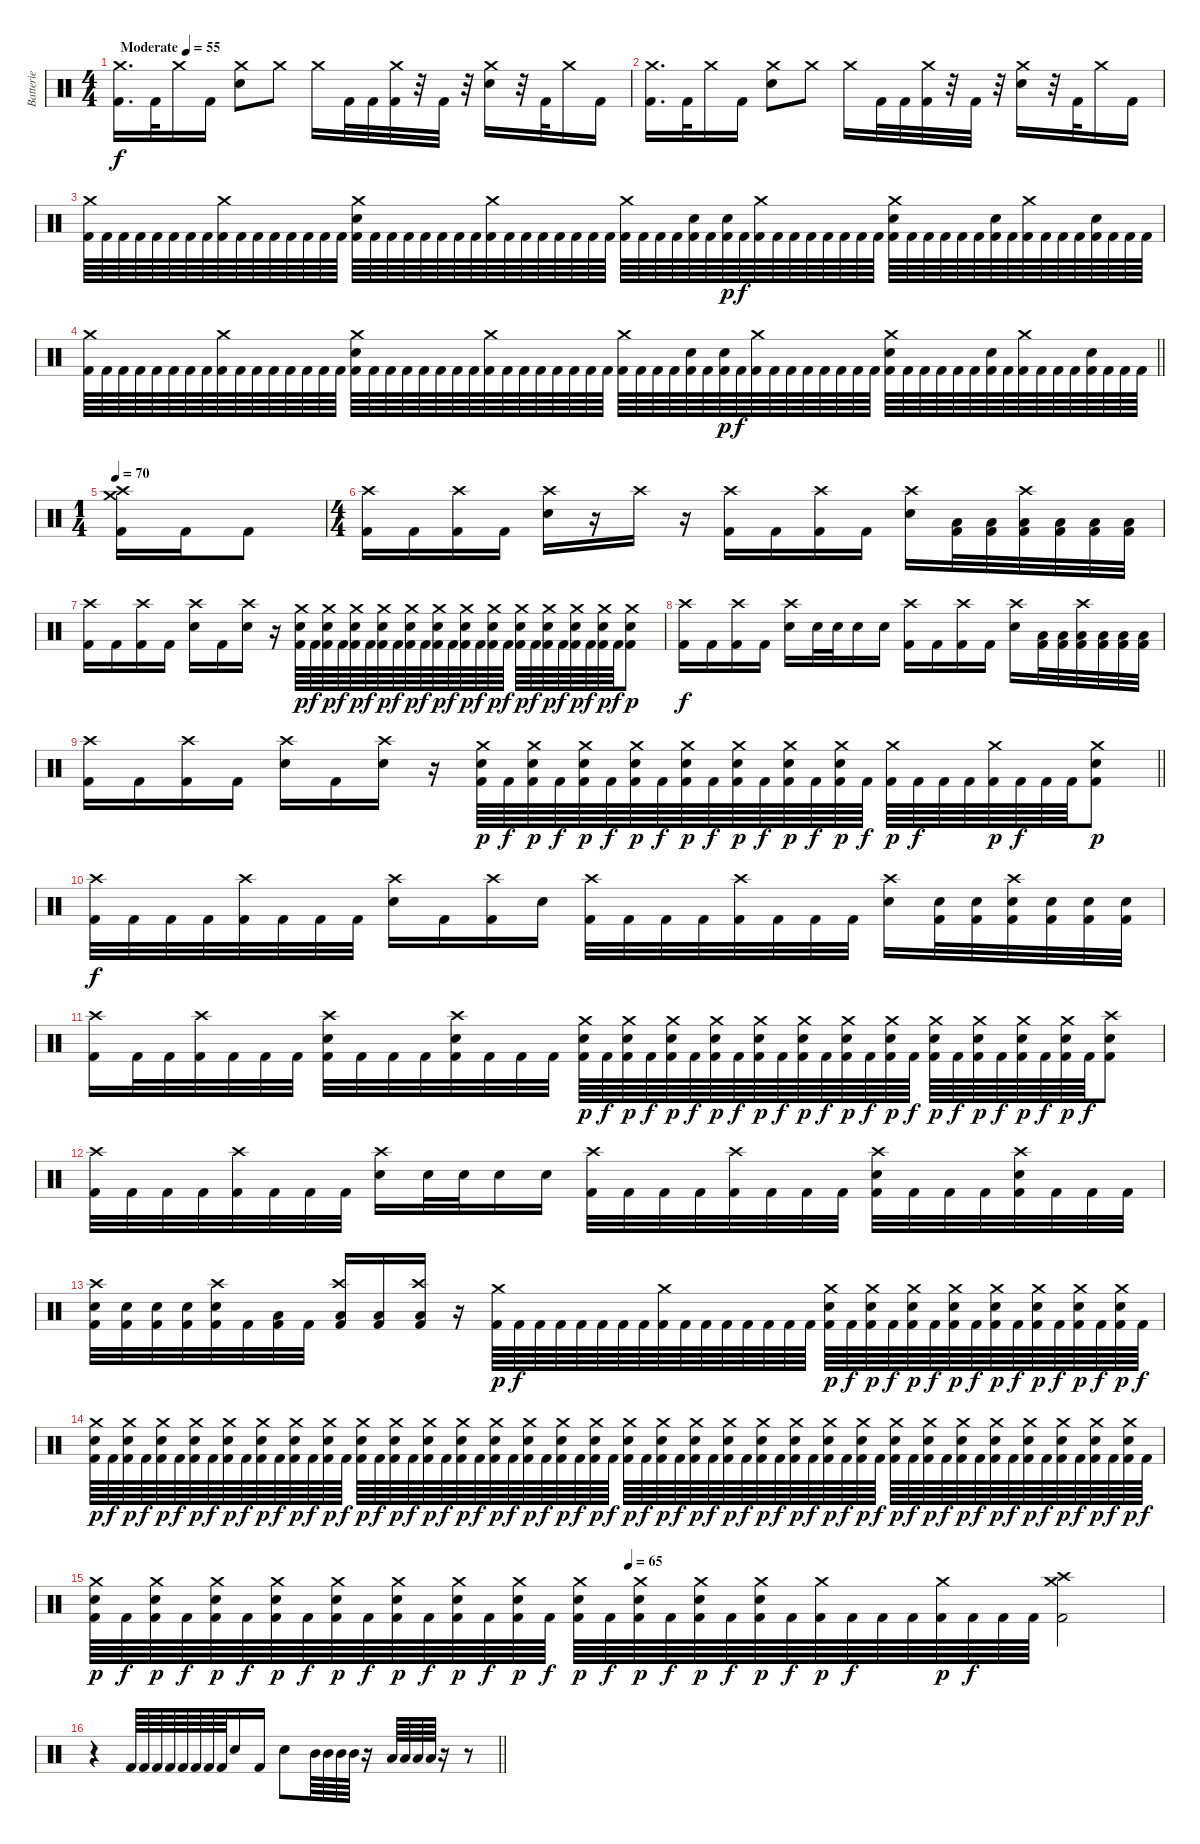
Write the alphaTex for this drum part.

\track ("Batterie" "Batterie") {instrument percussion}
\staff {score}
\articulation defaults
\ts (4 4)
\tempo (55 "Moderate")
\clef neutral
\ks c
("Crash medium (hit)" "Kick (hit) 2").16{d dy f} "Kick (hit) 2".32 "Crash medium (hit)".16 "Kick (hit) 2".16 ("Crash medium (hit)" "Electric Snare (hit)").8 "Crash medium (hit)".8 "Crash medium (hit)".16 "Kick (hit) 2".32 "Kick (hit) 2".32 ("Crash medium (hit)" "Kick (hit) 2").32 r.32 "Kick (hit) 2".32 r.32 ("Crash medium (hit)" "Electric Snare (hit)").16 r.32 "Kick (hit) 2".32 "Crash medium (hit)".16 "Kick (hit) 2".16 |
("Crash medium (hit)" "Kick (hit) 2").16{d} "Kick (hit) 2".32 "Crash medium (hit)".16 "Kick (hit) 2".16 ("Crash medium (hit)" "Electric Snare (hit)").8 "Crash medium (hit)".8 "Crash medium (hit)".16 "Kick (hit) 2".32 "Kick (hit) 2".32 ("Crash medium (hit)" "Kick (hit) 2").32 r.32 "Kick (hit) 2".32 r.32 ("Crash medium (hit)" "Electric Snare (hit)").16 r.32 "Kick (hit) 2".32 "Crash medium (hit)".16 "Kick (hit) 2".16 |
("Crash medium (hit)" "Kick (hit) 2").64 "Kick (hit) 2".64 "Kick (hit) 2".64 "Kick (hit) 2".64 "Kick (hit) 2".64 "Kick (hit) 2".64 "Kick (hit) 2".64 "Kick (hit) 2".64 ("Crash medium (hit)" "Kick (hit) 2").64 "Kick (hit) 2".64 "Kick (hit) 2".64 "Kick (hit) 2".64 "Kick (hit) 2".64 "Kick (hit) 2".64 "Kick (hit) 2".64 "Kick (hit) 2".64 ("Crash medium (hit)" "Electric Snare (hit)" "Kick (hit) 2").64 "Kick (hit) 2".64 "Kick (hit) 2".64 "Kick (hit) 2".64 "Kick (hit) 2".64 "Kick (hit) 2".64 "Kick (hit) 2".64 "Kick (hit) 2".64 ("Crash medium (hit)" "Kick (hit) 2").64 "Kick (hit) 2".64 "Kick (hit) 2".64 "Kick (hit) 2".64 "Kick (hit) 2".64 "Kick (hit) 2".64 "Kick (hit) 2".64 "Kick (hit) 2".64 ("Crash medium (hit)" "Kick (hit) 2").64 "Kick (hit) 2".64 "Kick (hit) 2".64 "Kick (hit) 2".64 ("Electric Snare (hit)" "Kick (hit) 2").64 "Kick (hit) 2".64 ("Electric Snare (hit)" "Kick (hit) 2").64{dy p} "Kick (hit) 2".64{dy f} ("Crash medium (hit)" "Kick (hit) 2").64 "Kick (hit) 2".64 "Kick (hit) 2".64 "Kick (hit) 2".64 "Kick (hit) 2".64 "Kick (hit) 2".64 "Kick (hit) 2".64 "Kick (hit) 2".64 ("Crash medium (hit)" "Electric Snare (hit)" "Kick (hit) 2").64 "Kick (hit) 2".64 "Kick (hit) 2".64 "Kick (hit) 2".64 "Kick (hit) 2".64 "Kick (hit) 2".64 ("Electric Snare (hit)" "Kick (hit) 2").64 "Kick (hit) 2".64 ("Crash medium (hit)" "Kick (hit) 2").64 "Kick (hit) 2".64 "Kick (hit) 2".64 "Kick (hit) 2".64 ("Electric Snare (hit)" "Kick (hit) 2").64 "Kick (hit) 2".64 "Kick (hit) 2".64 "Kick (hit) 2".64 |
\barLineRight lightlight
("Crash medium (hit)" "Kick (hit) 2").64 "Kick (hit) 2".64 "Kick (hit) 2".64 "Kick (hit) 2".64 "Kick (hit) 2".64 "Kick (hit) 2".64 "Kick (hit) 2".64 "Kick (hit) 2".64 ("Crash medium (hit)" "Kick (hit) 2").64 "Kick (hit) 2".64 "Kick (hit) 2".64 "Kick (hit) 2".64 "Kick (hit) 2".64 "Kick (hit) 2".64 "Kick (hit) 2".64 "Kick (hit) 2".64 ("Crash medium (hit)" "Electric Snare (hit)" "Kick (hit) 2").64 "Kick (hit) 2".64 "Kick (hit) 2".64 "Kick (hit) 2".64 "Kick (hit) 2".64 "Kick (hit) 2".64 "Kick (hit) 2".64 "Kick (hit) 2".64 ("Crash medium (hit)" "Kick (hit) 2").64 "Kick (hit) 2".64 "Kick (hit) 2".64 "Kick (hit) 2".64 "Kick (hit) 2".64 "Kick (hit) 2".64 "Kick (hit) 2".64 "Kick (hit) 2".64 ("Crash medium (hit)" "Kick (hit) 2").64 "Kick (hit) 2".64 "Kick (hit) 2".64 "Kick (hit) 2".64 ("Electric Snare (hit)" "Kick (hit) 2").64 "Kick (hit) 2".64 ("Electric Snare (hit)" "Kick (hit) 2").64{dy p} "Kick (hit) 2".64{dy f} ("Crash medium (hit)" "Kick (hit) 2").64 "Kick (hit) 2".64 "Kick (hit) 2".64 "Kick (hit) 2".64 "Kick (hit) 2".64 "Kick (hit) 2".64 "Kick (hit) 2".64 "Kick (hit) 2".64 ("Crash medium (hit)" "Electric Snare (hit)" "Kick (hit) 2").64 "Kick (hit) 2".64 "Kick (hit) 2".64 "Kick (hit) 2".64 "Kick (hit) 2".64 "Kick (hit) 2".64 ("Electric Snare (hit)" "Kick (hit) 2").64 "Kick (hit) 2".64 ("Crash medium (hit)" "Kick (hit) 2").64 "Kick (hit) 2".64 "Kick (hit) 2".64 "Kick (hit) 2".64 ("Electric Snare (hit)" "Kick (hit) 2").64 "Kick (hit) 2".64 "Kick (hit) 2".64 "Kick (hit) 2".64 |
\ts (1 4)
\section ("" "")
\tempo 70
("Crash medium (hit)" "Crash high (hit)" "Kick (hit) 2").16 "Kick (hit) 2".16 "Kick (hit) 2".8 |
\ts (4 4)
("Crash high (hit)" "Kick (hit) 2").16 "Kick (hit) 2".16 ("Crash high (hit)" "Kick (hit) 2").16 "Kick (hit) 2".16 ("Crash high (hit)" "Electric Snare (hit)").16 r.16 "Crash high (hit)".16 r.16 ("Crash high (hit)" "Kick (hit) 2").16 "Kick (hit) 2".16 ("Crash high (hit)" "Kick (hit) 2").16 "Kick (hit) 2".16 ("Crash high (hit)" "Electric Snare (hit)").16 ("Low Tom (hit)" "Kick (hit) 2").32 ("Low Tom (hit)" "Kick (hit) 2").32 ("Crash high (hit)" "Low Tom (hit)" "Kick (hit) 2").32 ("Low Tom (hit)" "Kick (hit) 2").32 ("Low Tom (hit)" "Kick (hit) 2").32 ("Low Tom (hit)" "Kick (hit) 2").32 |
("Crash high (hit)" "Kick (hit) 2").16 "Kick (hit) 2".16 ("Crash high (hit)" "Kick (hit) 2").16 "Kick (hit) 2".16 ("Crash high (hit)" "Electric Snare (hit)").16 "Kick (hit) 2".16 ("Crash high (hit)" "Electric Snare (hit)").16 r.16 ("Crash medium (hit)" "Electric Snare (hit)" "Kick (hit) 2").64{dy p} "Kick (hit) 2".64{dy f} ("Crash medium (hit)" "Electric Snare (hit)" "Kick (hit) 2").64{dy p} "Kick (hit) 2".64{dy f} ("Crash medium (hit)" "Electric Snare (hit)" "Kick (hit) 2").64{dy p} "Kick (hit) 2".64{dy f} ("Crash medium (hit)" "Electric Snare (hit)" "Kick (hit) 2").64{dy p} "Kick (hit) 2".64{dy f} ("Crash medium (hit)" "Electric Snare (hit)" "Kick (hit) 2").64{dy p} "Kick (hit) 2".64{dy f} ("Crash medium (hit)" "Electric Snare (hit)" "Kick (hit) 2").64{dy p} "Kick (hit) 2".64{dy f} ("Crash medium (hit)" "Electric Snare (hit)" "Kick (hit) 2").64{dy p} "Kick (hit) 2".64{dy f} ("Crash medium (hit)" "Electric Snare (hit)" "Kick (hit) 2").64{dy p} "Kick (hit) 2".64{dy f} ("Crash medium (hit)" "Electric Snare (hit)" "Kick (hit) 2").64{dy p} "Kick (hit) 2".64{dy f} ("Crash medium (hit)" "Electric Snare (hit)" "Kick (hit) 2").64{dy p} "Kick (hit) 2".64{dy f} ("Crash medium (hit)" "Electric Snare (hit)" "Kick (hit) 2").64{dy p} "Kick (hit) 2".64{dy f} ("Crash medium (hit)" "Electric Snare (hit)" "Kick (hit) 2").64{dy p} "Kick (hit) 2".64{dy f} ("Crash medium (hit)" "Electric Snare (hit)" "Kick (hit) 2").8{dy p} |
("Crash high (hit)" "Kick (hit) 2").16{dy f} "Kick (hit) 2".16 ("Crash high (hit)" "Kick (hit) 2").16 "Kick (hit) 2".16 ("Crash high (hit)" "Electric Snare (hit)").16 "Electric Snare (hit)".32 "Electric Snare (hit)".32 "Electric Snare (hit)".16 "Electric Snare (hit)".16 ("Crash high (hit)" "Kick (hit) 2").16 "Kick (hit) 2".16 ("Crash high (hit)" "Kick (hit) 2").16 "Kick (hit) 2".16 ("Crash high (hit)" "Electric Snare (hit)").16 ("Low Tom (hit)" "Kick (hit) 2").32 ("Low Tom (hit)" "Kick (hit) 2").32 ("Crash high (hit)" "Low Tom (hit)" "Kick (hit) 2").32 ("Low Tom (hit)" "Kick (hit) 2").32 ("Low Tom (hit)" "Kick (hit) 2").32 ("Low Tom (hit)" "Kick (hit) 2").32 |
\barLineRight lightlight
("Crash high (hit)" "Kick (hit) 2").16 "Kick (hit) 2".16 ("Crash high (hit)" "Kick (hit) 2").16 "Kick (hit) 2".16 ("Crash high (hit)" "Electric Snare (hit)").16 "Kick (hit) 2".16 ("Crash high (hit)" "Electric Snare (hit)").16 r.16 ("Crash medium (hit)" "Electric Snare (hit)" "Kick (hit) 2").64{dy p} "Kick (hit) 2".64{dy f} ("Crash medium (hit)" "Electric Snare (hit)" "Kick (hit) 2").64{dy p} "Kick (hit) 2".64{dy f} ("Crash medium (hit)" "Electric Snare (hit)" "Kick (hit) 2").64{dy p} "Kick (hit) 2".64{dy f} ("Crash medium (hit)" "Electric Snare (hit)" "Kick (hit) 2").64{dy p} "Kick (hit) 2".64{dy f} ("Crash medium (hit)" "Electric Snare (hit)" "Kick (hit) 2").64{dy p} "Kick (hit) 2".64{dy f} ("Crash medium (hit)" "Electric Snare (hit)" "Kick (hit) 2").64{dy p} "Kick (hit) 2".64{dy f} ("Crash medium (hit)" "Electric Snare (hit)" "Kick (hit) 2").64{dy p} "Kick (hit) 2".64{dy f} ("Crash medium (hit)" "Electric Snare (hit)" "Kick (hit) 2").64{dy p} "Kick (hit) 2".64{dy f} ("Crash medium (hit)" "Kick (hit) 2").64{dy p} "Kick (hit) 2".64{dy f} "Kick (hit) 2".64 "Kick (hit) 2".64 ("Crash medium (hit)" "Kick (hit) 2").64{dy p} "Kick (hit) 2".64{dy f} "Kick (hit) 2".64 "Kick (hit) 2".64 ("Crash medium (hit)" "Electric Snare (hit)" "Kick (hit) 2").8{dy p} |
\section ("" "")
("Crash high (hit)" "Kick (hit) 2").32{dy f} "Kick (hit) 2".32 "Kick (hit) 2".32 "Kick (hit) 2".32 ("Crash high (hit)" "Kick (hit) 2").32 "Kick (hit) 2".32 "Kick (hit) 2".32 "Kick (hit) 2".32 ("Crash high (hit)" "Electric Snare (hit)").16 "Kick (hit) 2".16 ("Crash high (hit)" "Kick (hit) 2").16 "Electric Snare (hit)".16 ("Crash high (hit)" "Kick (hit) 2").32 "Kick (hit) 2".32 "Kick (hit) 2".32 "Kick (hit) 2".32 ("Crash high (hit)" "Kick (hit) 2").32 "Kick (hit) 2".32 "Kick (hit) 2".32 "Kick (hit) 2".32 ("Crash high (hit)" "Electric Snare (hit)").16 ("Electric Snare (hit)" "Kick (hit) 2").32 ("Electric Snare (hit)" "Kick (hit) 2").32 ("Crash high (hit)" "Electric Snare (hit)" "Kick (hit) 2").32 ("Electric Snare (hit)" "Kick (hit) 2").32 ("Electric Snare (hit)" "Kick (hit) 2").32 ("Electric Snare (hit)" "Kick (hit) 2").32 |
("Crash high (hit)" "Kick (hit) 2").16 "Kick (hit) 2".32 "Kick (hit) 2".32 ("Crash high (hit)" "Kick (hit) 2").32 "Kick (hit) 2".32 "Kick (hit) 2".32 "Kick (hit) 2".32 ("Crash high (hit)" "Electric Snare (hit)" "Kick (hit) 2").32 "Kick (hit) 2".32 "Kick (hit) 2".32 "Kick (hit) 2".32 ("Crash high (hit)" "Electric Snare (hit)" "Kick (hit) 2").32 "Kick (hit) 2".32 "Kick (hit) 2".32 "Kick (hit) 2".32 ("Crash medium (hit)" "Electric Snare (hit)" "Kick (hit) 2").64{dy p} "Kick (hit) 2".64{dy f} ("Crash medium (hit)" "Electric Snare (hit)" "Kick (hit) 2").64{dy p} "Kick (hit) 2".64{dy f} ("Crash medium (hit)" "Electric Snare (hit)" "Kick (hit) 2").64{dy p} "Kick (hit) 2".64{dy f} ("Crash medium (hit)" "Electric Snare (hit)" "Kick (hit) 2").64{dy p} "Kick (hit) 2".64{dy f} ("Crash medium (hit)" "Electric Snare (hit)" "Kick (hit) 2").64{dy p} "Kick (hit) 2".64{dy f} ("Crash medium (hit)" "Electric Snare (hit)" "Kick (hit) 2").64{dy p} "Kick (hit) 2".64{dy f} ("Crash medium (hit)" "Electric Snare (hit)" "Kick (hit) 2").64{dy p} "Kick (hit) 2".64{dy f} ("Crash medium (hit)" "Electric Snare (hit)" "Kick (hit) 2").64{dy p} "Kick (hit) 2".64{dy f} ("Crash medium (hit)" "Electric Snare (hit)" "Kick (hit) 2").64{dy p} "Kick (hit) 2".64{dy f} ("Crash medium (hit)" "Electric Snare (hit)" "Kick (hit) 2").64{dy p} "Kick (hit) 2".64{dy f} ("Crash medium (hit)" "Electric Snare (hit)" "Kick (hit) 2").64{dy p} "Kick (hit) 2".64{dy f} ("Crash medium (hit)" "Electric Snare (hit)" "Kick (hit) 2").64{dy p} "Kick (hit) 2".64{dy f} ("Crash high (hit)" "Electric Snare (hit)" "Kick (hit) 2").8 |
("Crash high (hit)" "Kick (hit) 2").32 "Kick (hit) 2".32 "Kick (hit) 2".32 "Kick (hit) 2".32 ("Crash high (hit)" "Kick (hit) 2").32 "Kick (hit) 2".32 "Kick (hit) 2".32 "Kick (hit) 2".32 ("Crash high (hit)" "Electric Snare (hit)").16 "Electric Snare (hit)".32 "Electric Snare (hit)".32 "Electric Snare (hit)".16 "Electric Snare (hit)".16 ("Crash high (hit)" "Kick (hit) 2").32 "Kick (hit) 2".32 "Kick (hit) 2".32 "Kick (hit) 2".32 ("Crash high (hit)" "Kick (hit) 2").32 "Kick (hit) 2".32 "Kick (hit) 2".32 "Kick (hit) 2".32 ("Crash high (hit)" "Electric Snare (hit)" "Kick (hit) 2").32 "Kick (hit) 2".32 "Kick (hit) 2".32 "Kick (hit) 2".32 ("Crash high (hit)" "Electric Snare (hit)" "Kick (hit) 2").32 "Kick (hit) 2".32 "Kick (hit) 2".32 "Kick (hit) 2".32 |
("Crash high (hit)" "Electric Snare (hit)" "Kick (hit) 2").32 ("Electric Snare (hit)" "Kick (hit) 2").32 ("Electric Snare (hit)" "Kick (hit) 2").32 ("Electric Snare (hit)" "Kick (hit) 2").32 ("Crash high (hit)" "Electric Snare (hit)" "Kick (hit) 2").32 "Kick (hit) 2".32 ("Low Tom (hit)" "Kick (hit) 2").32 "Kick (hit) 2".32 ("Crash high (hit)" "Low Tom (hit)" "Kick (hit) 2").16 ("Low Tom (hit)" "Kick (hit) 2").16 ("Crash high (hit)" "Low Tom (hit)" "Kick (hit) 2").16 r.16 ("Crash medium (hit)" "Kick (hit) 2").64{dy p} "Kick (hit) 2".64{dy f} "Kick (hit) 2".64 "Kick (hit) 2".64 "Kick (hit) 2".64 "Kick (hit) 2".64 "Kick (hit) 2".64 "Kick (hit) 2".64 ("Crash medium (hit)" "Kick (hit) 2").64 "Kick (hit) 2".64 "Kick (hit) 2".64 "Kick (hit) 2".64 "Kick (hit) 2".64 "Kick (hit) 2".64 "Kick (hit) 2".64 "Kick (hit) 2".64 ("Crash medium (hit)" "Electric Snare (hit)" "Kick (hit) 2").64{dy p} "Kick (hit) 2".64{dy f} ("Crash medium (hit)" "Electric Snare (hit)" "Kick (hit) 2").64{dy p} "Kick (hit) 2".64{dy f} ("Crash medium (hit)" "Electric Snare (hit)" "Kick (hit) 2").64{dy p} "Kick (hit) 2".64{dy f} ("Crash medium (hit)" "Electric Snare (hit)" "Kick (hit) 2").64{dy p} "Kick (hit) 2".64{dy f} ("Crash medium (hit)" "Electric Snare (hit)" "Kick (hit) 2").64{dy p} "Kick (hit) 2".64{dy f} ("Crash medium (hit)" "Electric Snare (hit)" "Kick (hit) 2").64{dy p} "Kick (hit) 2".64{dy f} ("Crash medium (hit)" "Electric Snare (hit)" "Kick (hit) 2").64{dy p} "Kick (hit) 2".64{dy f} ("Crash medium (hit)" "Electric Snare (hit)" "Kick (hit) 2").64{dy p} "Kick (hit) 2".64{dy f} |
("Crash medium (hit)" "Electric Snare (hit)" "Kick (hit) 2").64{dy p} "Kick (hit) 2".64{dy f} ("Crash medium (hit)" "Electric Snare (hit)" "Kick (hit) 2").64{dy p} "Kick (hit) 2".64{dy f} ("Crash medium (hit)" "Electric Snare (hit)" "Kick (hit) 2").64{dy p} "Kick (hit) 2".64{dy f} ("Crash medium (hit)" "Electric Snare (hit)" "Kick (hit) 2").64{dy p} "Kick (hit) 2".64{dy f} ("Crash medium (hit)" "Electric Snare (hit)" "Kick (hit) 2").64{dy p} "Kick (hit) 2".64{dy f} ("Crash medium (hit)" "Electric Snare (hit)" "Kick (hit) 2").64{dy p} "Kick (hit) 2".64{dy f} ("Crash medium (hit)" "Electric Snare (hit)" "Kick (hit) 2").64{dy p} "Kick (hit) 2".64{dy f} ("Crash medium (hit)" "Electric Snare (hit)" "Kick (hit) 2").64{dy p} "Kick (hit) 2".64{dy f} ("Crash medium (hit)" "Electric Snare (hit)" "Kick (hit) 2").64{dy p} "Kick (hit) 2".64{dy f} ("Crash medium (hit)" "Electric Snare (hit)" "Kick (hit) 2").64{dy p} "Kick (hit) 2".64{dy f} ("Crash medium (hit)" "Electric Snare (hit)" "Kick (hit) 2").64{dy p} "Kick (hit) 2".64{dy f} ("Crash medium (hit)" "Electric Snare (hit)" "Kick (hit) 2").64{dy p} "Kick (hit) 2".64{dy f} ("Crash medium (hit)" "Electric Snare (hit)" "Kick (hit) 2").64{dy p} "Kick (hit) 2".64{dy f} ("Crash medium (hit)" "Electric Snare (hit)" "Kick (hit) 2").64{dy p} "Kick (hit) 2".64{dy f} ("Crash medium (hit)" "Electric Snare (hit)" "Kick (hit) 2").64{dy p} "Kick (hit) 2".64{dy f} ("Crash medium (hit)" "Electric Snare (hit)" "Kick (hit) 2").64{dy p} "Kick (hit) 2".64{dy f} ("Crash medium (hit)" "Electric Snare (hit)" "Kick (hit) 2").64{dy p} "Kick (hit) 2".64{dy f} ("Crash medium (hit)" "Electric Snare (hit)" "Kick (hit) 2").64{dy p} "Kick (hit) 2".64{dy f} ("Crash medium (hit)" "Electric Snare (hit)" "Kick (hit) 2").64{dy p} "Kick (hit) 2".64{dy f} ("Crash medium (hit)" "Electric Snare (hit)" "Kick (hit) 2").64{dy p} "Kick (hit) 2".64{dy f} ("Crash medium (hit)" "Electric Snare (hit)" "Kick (hit) 2").64{dy p} "Kick (hit) 2".64{dy f} ("Crash medium (hit)" "Electric Snare (hit)" "Kick (hit) 2").64{dy p} "Kick (hit) 2".64{dy f} ("Crash medium (hit)" "Electric Snare (hit)" "Kick (hit) 2").64{dy p} "Kick (hit) 2".64{dy f} ("Crash medium (hit)" "Electric Snare (hit)" "Kick (hit) 2").64{dy p} "Kick (hit) 2".64{dy f} ("Crash medium (hit)" "Electric Snare (hit)" "Kick (hit) 2").64{dy p} "Kick (hit) 2".64{dy f} ("Crash medium (hit)" "Electric Snare (hit)" "Kick (hit) 2").64{dy p} "Kick (hit) 2".64{dy f} ("Crash medium (hit)" "Electric Snare (hit)" "Kick (hit) 2").64{dy p} "Kick (hit) 2".64{dy f} ("Crash medium (hit)" "Electric Snare (hit)" "Kick (hit) 2").64{dy p} "Kick (hit) 2".64{dy f} ("Crash medium (hit)" "Electric Snare (hit)" "Kick (hit) 2").64{dy p} "Kick (hit) 2".64{dy f} ("Crash medium (hit)" "Electric Snare (hit)" "Kick (hit) 2").64{dy p} "Kick (hit) 2".64{dy f} ("Crash medium (hit)" "Electric Snare (hit)" "Kick (hit) 2").64{dy p} "Kick (hit) 2".64{dy f} ("Crash medium (hit)" "Electric Snare (hit)" "Kick (hit) 2").64{dy p} "Kick (hit) 2".64{dy f} |
\tempo (65 0.5)
("Crash medium (hit)" "Electric Snare (hit)" "Kick (hit) 2").64{dy p} "Kick (hit) 2".64{dy f} ("Crash medium (hit)" "Electric Snare (hit)" "Kick (hit) 2").64{dy p} "Kick (hit) 2".64{dy f} ("Crash medium (hit)" "Electric Snare (hit)" "Kick (hit) 2").64{dy p} "Kick (hit) 2".64{dy f} ("Crash medium (hit)" "Electric Snare (hit)" "Kick (hit) 2").64{dy p} "Kick (hit) 2".64{dy f} ("Crash medium (hit)" "Electric Snare (hit)" "Kick (hit) 2").64{dy p} "Kick (hit) 2".64{dy f} ("Crash medium (hit)" "Electric Snare (hit)" "Kick (hit) 2").64{dy p} "Kick (hit) 2".64{dy f} ("Crash medium (hit)" "Electric Snare (hit)" "Kick (hit) 2").64{dy p} "Kick (hit) 2".64{dy f} ("Crash medium (hit)" "Electric Snare (hit)" "Kick (hit) 2").64{dy p} "Kick (hit) 2".64{dy f} ("Crash medium (hit)" "Electric Snare (hit)" "Kick (hit) 2").64{dy p} "Kick (hit) 2".64{dy f} ("Crash medium (hit)" "Electric Snare (hit)" "Kick (hit) 2").64{dy p} "Kick (hit) 2".64{dy f} ("Crash medium (hit)" "Electric Snare (hit)" "Kick (hit) 2").64{dy p} "Kick (hit) 2".64{dy f} ("Crash medium (hit)" "Electric Snare (hit)" "Kick (hit) 2").64{dy p} "Kick (hit) 2".64{dy f} ("Crash medium (hit)" "Kick (hit) 2").64{dy p} "Kick (hit) 2".64{dy f} "Kick (hit) 2".64 "Kick (hit) 2".64 ("Crash medium (hit)" "Kick (hit) 2").64{dy p} "Kick (hit) 2".64{dy f} "Kick (hit) 2".64 "Kick (hit) 2".64 ("Crash medium (hit)" "Crash high (hit)" "Kick (hit) 2").2 |
\barLineRight lightlight
r.4 "Kick (hit) 2".64 "Kick (hit) 2".64 "Kick (hit) 2".64 "Kick (hit) 2".64 "Kick (hit) 2".64 "Kick (hit) 2".64 "Kick (hit) 2".64 "Kick (hit) 2".64 "Electric Snare (hit)".16 "Kick (hit) 2".16 "Electric Snare (hit)".8 "Mid Tom (hit)".64 "Mid Tom (hit)".64 "Mid Tom (hit)".64 "Mid Tom (hit)".64 r.16 "Low Tom (hit)".64 "Low Tom (hit)".64 "Low Tom (hit)".64 "Low Tom (hit)".64 r.16 r.8
